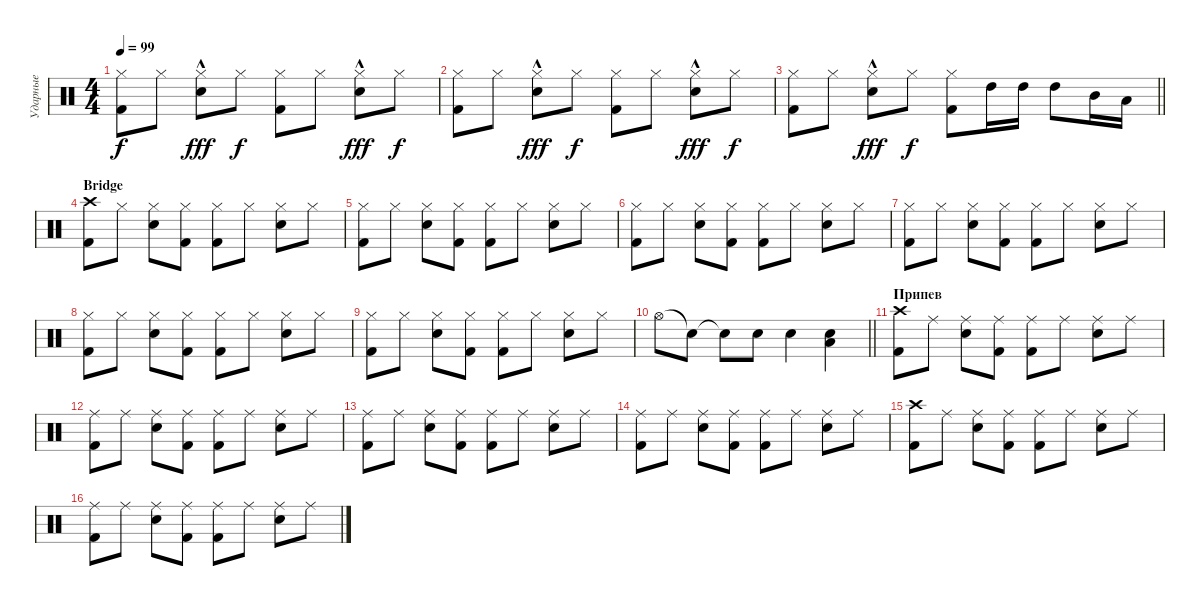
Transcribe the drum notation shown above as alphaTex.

\track ("Ударные" "Ударные") {instrument percussion}
\staff
\articulation defaults
\ts (4 4)
\tempo 99
\clef neutral
\ks c
("Hi-Hat (closed)" "Kick (hit) 2").8{dy f} "Hi-Hat (closed)".8 ("Hi-Hat (closed)"{hac} "Electric Snare (hit)").8{dy fff} "Hi-Hat (closed)".8{dy f} ("Hi-Hat (closed)" "Kick (hit) 2").8 "Hi-Hat (closed)".8 ("Hi-Hat (closed)"{hac} "Electric Snare (hit)").8{dy fff} "Hi-Hat (closed)".8{dy f} |
("Hi-Hat (closed)" "Kick (hit) 2").8 "Hi-Hat (closed)".8 ("Hi-Hat (closed)"{hac} "Electric Snare (hit)").8{dy fff} "Hi-Hat (closed)".8{dy f} ("Hi-Hat (closed)" "Kick (hit) 2").8 "Hi-Hat (closed)".8 ("Hi-Hat (closed)"{hac} "Electric Snare (hit)").8{dy fff} "Hi-Hat (closed)".8{dy f} |
\barLineRight lightlight
("Hi-Hat (closed)" "Kick (hit) 2").8 "Hi-Hat (closed)".8 ("Hi-Hat (closed)"{hac} "Electric Snare (hit)").8{dy fff} "Hi-Hat (closed)".8{dy f} ("Hi-Hat (closed)" "Kick (hit) 2").8 "High Tom (hit)".16 "High Tom (hit)".16 "High Tom (hit)".8 "Mid Tom (hit)".16 "Low Tom (hit)".16 |
\section ("" "Bridge")
("Crash high (hit)" "Kick (hit) 2").8 "Hi-Hat (closed)".8 ("Hi-Hat (closed)" "Electric Snare (hit)").8 ("Hi-Hat (closed)" "Kick (hit) 2").8 ("Hi-Hat (closed)" "Kick (hit) 2").8 "Hi-Hat (closed)".8 ("Hi-Hat (closed)" "Electric Snare (hit)").8 "Hi-Hat (closed)".8 |
("Hi-Hat (closed)" "Kick (hit) 2").8 "Hi-Hat (closed)".8 ("Hi-Hat (closed)" "Electric Snare (hit)").8 ("Hi-Hat (closed)" "Kick (hit) 2").8 ("Hi-Hat (closed)" "Kick (hit) 2").8 "Hi-Hat (closed)".8 ("Hi-Hat (closed)" "Electric Snare (hit)").8 "Hi-Hat (closed)".8 |
("Hi-Hat (closed)" "Kick (hit) 2").8 "Hi-Hat (closed)".8 ("Hi-Hat (closed)" "Electric Snare (hit)").8 ("Hi-Hat (closed)" "Kick (hit) 2").8 ("Hi-Hat (closed)" "Kick (hit) 2").8 "Hi-Hat (closed)".8 ("Hi-Hat (closed)" "Electric Snare (hit)").8 "Hi-Hat (closed)".8 |
("Hi-Hat (closed)" "Kick (hit) 2").8 "Hi-Hat (closed)".8 ("Hi-Hat (closed)" "Electric Snare (hit)").8 ("Hi-Hat (closed)" "Kick (hit) 2").8 ("Hi-Hat (closed)" "Kick (hit) 2").8 "Hi-Hat (closed)".8 ("Hi-Hat (closed)" "Electric Snare (hit)").8 "Hi-Hat (closed)".8 |
("Hi-Hat (closed)" "Kick (hit) 2").8 "Hi-Hat (closed)".8 ("Hi-Hat (closed)" "Electric Snare (hit)").8 ("Hi-Hat (closed)" "Kick (hit) 2").8 ("Hi-Hat (closed)" "Kick (hit) 2").8 "Hi-Hat (closed)".8 ("Hi-Hat (closed)" "Electric Snare (hit)").8 "Hi-Hat (closed)".8 |
("Hi-Hat (closed)" "Kick (hit) 2").8 "Hi-Hat (closed)".8 ("Hi-Hat (closed)" "Electric Snare (hit)").8 ("Hi-Hat (closed)" "Kick (hit) 2").8 ("Hi-Hat (closed)" "Kick (hit) 2").8 "Hi-Hat (closed)".8 ("Hi-Hat (closed)" "Electric Snare (hit)").8 "Hi-Hat (closed)".8 |
\barLineRight lightlight "Hi-Hat (open)".8 "Snare (hit)"{t}.8 "Snare (hit)"{t}.8 "Electric Snare (hit)".8 "Electric Snare (hit)".4
("Electric Snare (hit)" "Low Tom (hit)").4 |
\section ("" "Припев")
("Crash high (hit)" "Kick (hit) 2").8 "Ride (middle)".8 ("Ride (middle)" "Electric Snare (hit)").8 ("Ride (middle)" "Kick (hit) 2").8 ("Ride (middle)" "Kick (hit) 2").8 "Ride (middle)".8 ("Ride (middle)" "Electric Snare (hit)").8 "Ride (middle)".8 |
("Ride (middle)" "Kick (hit) 2").8 "Ride (middle)".8 ("Ride (middle)" "Electric Snare (hit)").8 ("Ride (middle)" "Kick (hit) 2").8 ("Ride (middle)" "Kick (hit) 2").8 "Ride (middle)".8 ("Ride (middle)" "Electric Snare (hit)").8 "Ride (middle)".8 |
("Ride (middle)" "Kick (hit) 2").8 "Ride (middle)".8 ("Ride (middle)" "Electric Snare (hit)").8 ("Ride (middle)" "Kick (hit) 2").8 ("Ride (middle)" "Kick (hit) 2").8 "Ride (middle)".8 ("Ride (middle)" "Electric Snare (hit)").8 "Ride (middle)".8 |
("Ride (middle)" "Kick (hit) 2").8 "Ride (middle)".8 ("Ride (middle)" "Electric Snare (hit)").8 ("Ride (middle)" "Kick (hit) 2").8 ("Ride (middle)" "Kick (hit) 2").8 "Ride (middle)".8 ("Ride (middle)" "Electric Snare (hit)").8 "Ride (middle)".8 |
("Crash high (hit)" "Kick (hit) 2").8 "Ride (middle)".8 ("Ride (middle)" "Electric Snare (hit)").8 ("Ride (middle)" "Kick (hit) 2").8 ("Ride (middle)" "Kick (hit) 2").8 "Ride (middle)".8 ("Ride (middle)" "Electric Snare (hit)").8 "Ride (middle)".8 |
("Ride (middle)" "Kick (hit) 2").8 "Ride (middle)".8 ("Ride (middle)" "Electric Snare (hit)").8 ("Ride (middle)" "Kick (hit) 2").8 ("Ride (middle)" "Kick (hit) 2").8 "Ride (middle)".8 ("Ride (middle)" "Electric Snare (hit)").8 "Ride (middle)".8
